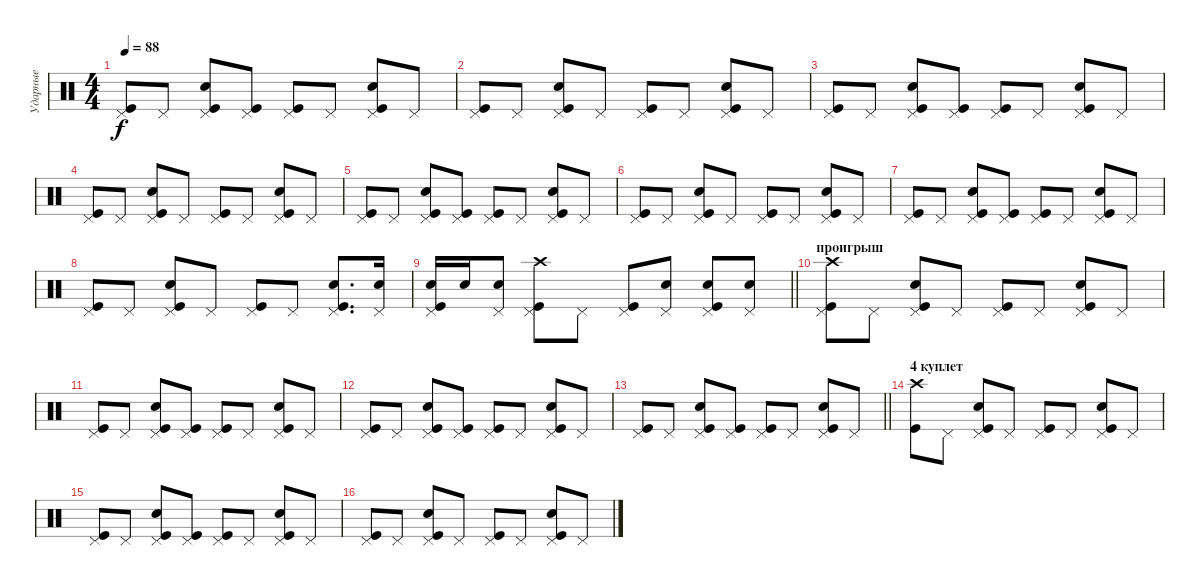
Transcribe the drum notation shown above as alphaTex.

\track ("Ударные" "Ударные") {instrument percussion}
\staff {score}
\articulation defaults
\ts (4 4)
\tempo 88
\clef neutral
\ks c
("Pedal Hi-Hat (hit)" "Kick (hit)").8{dy f} "Pedal Hi-Hat (hit)".8 ("Pedal Hi-Hat (hit)" "Kick (hit)" "Snare (hit) 2").8 ("Pedal Hi-Hat (hit)" "Kick (hit)").8 ("Pedal Hi-Hat (hit)" "Kick (hit)").8 "Pedal Hi-Hat (hit)".8 ("Pedal Hi-Hat (hit)" "Kick (hit)" "Snare (hit) 2").8 "Pedal Hi-Hat (hit)".8 |
("Pedal Hi-Hat (hit)" "Kick (hit)").8 "Pedal Hi-Hat (hit)".8 ("Pedal Hi-Hat (hit)" "Kick (hit)" "Snare (hit) 2").8 "Pedal Hi-Hat (hit)".8 ("Pedal Hi-Hat (hit)" "Kick (hit)").8 "Pedal Hi-Hat (hit)".8 ("Pedal Hi-Hat (hit)" "Kick (hit)" "Snare (hit) 2").8 "Pedal Hi-Hat (hit)".8 |
("Pedal Hi-Hat (hit)" "Kick (hit)").8 "Pedal Hi-Hat (hit)".8 ("Pedal Hi-Hat (hit)" "Kick (hit)" "Snare (hit) 2").8 ("Pedal Hi-Hat (hit)" "Kick (hit)").8 ("Pedal Hi-Hat (hit)" "Kick (hit)").8 "Pedal Hi-Hat (hit)".8 ("Pedal Hi-Hat (hit)" "Kick (hit)" "Snare (hit) 2").8 "Pedal Hi-Hat (hit)".8 |
("Pedal Hi-Hat (hit)" "Kick (hit)").8 "Pedal Hi-Hat (hit)".8 ("Pedal Hi-Hat (hit)" "Kick (hit)" "Snare (hit) 2").8 "Pedal Hi-Hat (hit)".8 ("Pedal Hi-Hat (hit)" "Kick (hit)").8 "Pedal Hi-Hat (hit)".8 ("Pedal Hi-Hat (hit)" "Kick (hit)" "Snare (hit) 2").8 "Pedal Hi-Hat (hit)".8 |
("Pedal Hi-Hat (hit)" "Kick (hit)").8 "Pedal Hi-Hat (hit)".8 ("Pedal Hi-Hat (hit)" "Kick (hit)" "Snare (hit) 2").8 ("Pedal Hi-Hat (hit)" "Kick (hit)").8 ("Pedal Hi-Hat (hit)" "Kick (hit)").8 "Pedal Hi-Hat (hit)".8 ("Pedal Hi-Hat (hit)" "Kick (hit)" "Snare (hit) 2").8 "Pedal Hi-Hat (hit)".8 |
("Pedal Hi-Hat (hit)" "Kick (hit)").8 "Pedal Hi-Hat (hit)".8 ("Pedal Hi-Hat (hit)" "Kick (hit)" "Snare (hit) 2").8 "Pedal Hi-Hat (hit)".8 ("Pedal Hi-Hat (hit)" "Kick (hit)").8 "Pedal Hi-Hat (hit)".8 ("Pedal Hi-Hat (hit)" "Kick (hit)" "Snare (hit) 2").8 "Pedal Hi-Hat (hit)".8 |
("Pedal Hi-Hat (hit)" "Kick (hit)").8 "Pedal Hi-Hat (hit)".8 ("Pedal Hi-Hat (hit)" "Kick (hit)" "Snare (hit) 2").8 ("Pedal Hi-Hat (hit)" "Kick (hit)").8 ("Pedal Hi-Hat (hit)" "Kick (hit)").8 "Pedal Hi-Hat (hit)".8 ("Pedal Hi-Hat (hit)" "Kick (hit)" "Snare (hit) 2").8 "Pedal Hi-Hat (hit)".8 |
("Pedal Hi-Hat (hit)" "Kick (hit)").8 "Pedal Hi-Hat (hit)".8 ("Pedal Hi-Hat (hit)" "Kick (hit)" "Snare (hit) 2").8 "Pedal Hi-Hat (hit)".8 ("Pedal Hi-Hat (hit)" "Kick (hit)").8 "Pedal Hi-Hat (hit)".8 ("Pedal Hi-Hat (hit)" "Kick (hit)" "Snare (hit) 2").8{d} ("Pedal Hi-Hat (hit)" "Snare (hit) 2").16 |
\barLineRight lightlight
("Snare (hit) 2" "Kick (hit)" "Pedal Hi-Hat (hit)").16 "Snare (hit) 2".16 ("Snare (hit) 2" "Pedal Hi-Hat (hit)").8 ("Pedal Hi-Hat (hit)" "Kick (hit)" "Crash high (hit)").8 "Pedal Hi-Hat (hit)".8 ("Pedal Hi-Hat (hit)" "Kick (hit)").8 ("Snare (hit) 2" "Pedal Hi-Hat (hit)").8 ("Snare (hit) 2" "Pedal Hi-Hat (hit)" "Kick (hit)").8 ("Snare (hit) 2" "Pedal Hi-Hat (hit)").8 |
\section ("" "проигрыш")
("Pedal Hi-Hat (hit)" "Kick (hit)" "Crash high (hit)").8 "Pedal Hi-Hat (hit)".8 ("Pedal Hi-Hat (hit)" "Kick (hit)" "Snare (hit) 2").8 "Pedal Hi-Hat (hit)".8 ("Pedal Hi-Hat (hit)" "Kick (hit)").8 "Pedal Hi-Hat (hit)".8 ("Pedal Hi-Hat (hit)" "Kick (hit)" "Snare (hit) 2").8 "Pedal Hi-Hat (hit)".8 |
("Pedal Hi-Hat (hit)" "Kick (hit)").8 "Pedal Hi-Hat (hit)".8 ("Pedal Hi-Hat (hit)" "Kick (hit)" "Snare (hit) 2").8 ("Pedal Hi-Hat (hit)" "Kick (hit)").8 ("Pedal Hi-Hat (hit)" "Kick (hit)").8 "Pedal Hi-Hat (hit)".8 ("Pedal Hi-Hat (hit)" "Kick (hit)" "Snare (hit) 2").8 "Pedal Hi-Hat (hit)".8 |
("Pedal Hi-Hat (hit)" "Kick (hit)").8 "Pedal Hi-Hat (hit)".8 ("Pedal Hi-Hat (hit)" "Kick (hit)" "Snare (hit) 2").8 ("Pedal Hi-Hat (hit)" "Kick (hit)").8 ("Pedal Hi-Hat (hit)" "Kick (hit)").8 "Pedal Hi-Hat (hit)".8 ("Pedal Hi-Hat (hit)" "Kick (hit)" "Snare (hit) 2").8 "Pedal Hi-Hat (hit)".8 |
\barLineRight lightlight
("Pedal Hi-Hat (hit)" "Kick (hit)").8 "Pedal Hi-Hat (hit)".8 ("Pedal Hi-Hat (hit)" "Kick (hit)" "Snare (hit) 2").8 ("Pedal Hi-Hat (hit)" "Kick (hit)").8 ("Pedal Hi-Hat (hit)" "Kick (hit)").8 "Pedal Hi-Hat (hit)".8 ("Pedal Hi-Hat (hit)" "Kick (hit)" "Snare (hit) 2").8 "Pedal Hi-Hat (hit)".8 |
\section ("" "4 куплет")
("Crash high (hit)" "Kick (hit)").8 "Pedal Hi-Hat (hit)".8 ("Pedal Hi-Hat (hit)" "Kick (hit)" "Snare (hit) 2").8 "Pedal Hi-Hat (hit)".8 ("Pedal Hi-Hat (hit)" "Kick (hit)").8 "Pedal Hi-Hat (hit)".8 ("Pedal Hi-Hat (hit)" "Kick (hit)" "Snare (hit) 2").8 "Pedal Hi-Hat (hit)".8 |
("Pedal Hi-Hat (hit)" "Kick (hit)").8 "Pedal Hi-Hat (hit)".8 ("Pedal Hi-Hat (hit)" "Kick (hit)" "Snare (hit) 2").8 ("Pedal Hi-Hat (hit)" "Kick (hit)").8 ("Pedal Hi-Hat (hit)" "Kick (hit)").8 "Pedal Hi-Hat (hit)".8 ("Pedal Hi-Hat (hit)" "Kick (hit)" "Snare (hit) 2").8 "Pedal Hi-Hat (hit)".8 |
("Pedal Hi-Hat (hit)" "Kick (hit)").8 "Pedal Hi-Hat (hit)".8 ("Pedal Hi-Hat (hit)" "Kick (hit)" "Snare (hit) 2").8 "Pedal Hi-Hat (hit)".8 ("Pedal Hi-Hat (hit)" "Kick (hit)").8 "Pedal Hi-Hat (hit)".8 ("Pedal Hi-Hat (hit)" "Kick (hit)" "Snare (hit) 2").8 "Pedal Hi-Hat (hit)".8
